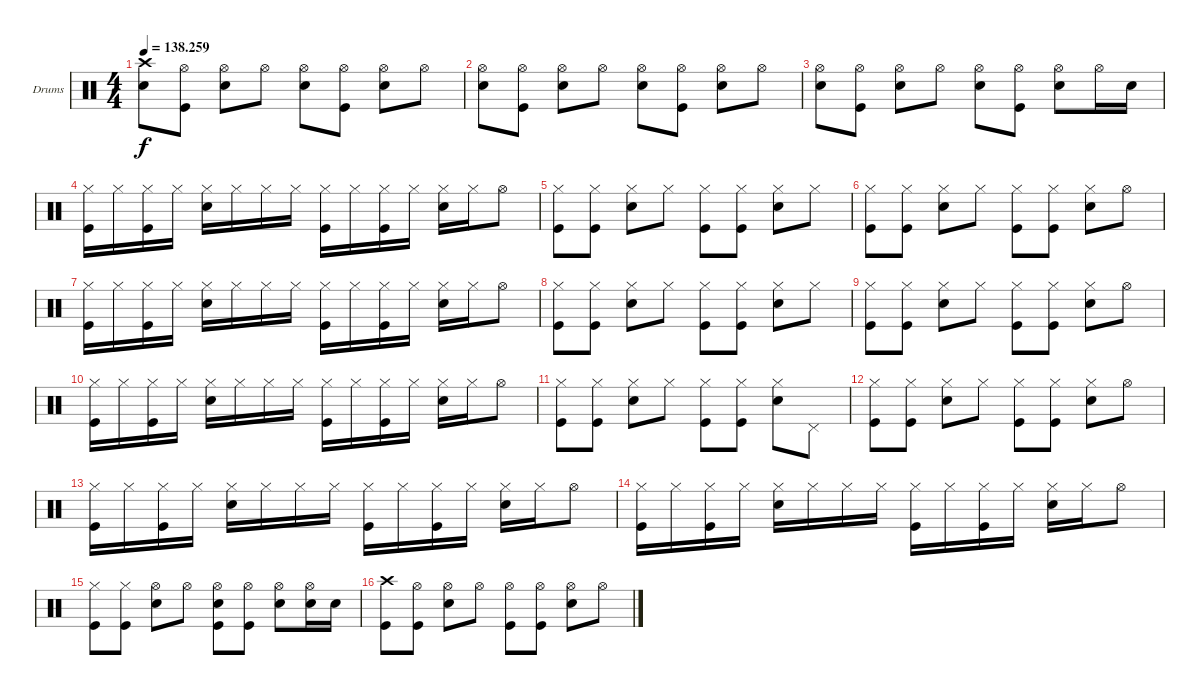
\bracketExtendMode groupsimilarinstruments
\firstSystemTrackNameOrientation horizontal
\otherSystemsTrackNameOrientation horizontal
\track ("Drumkit" "Drums") {instrument percussion}
\staff {score}
\articulation defaults
\ts (4 4)
\tempo
138.259
\accidentals auto
\clef neutral
\ottava regular
\simile none
\ks c
("Crash high (hit)" "Snare (hit) 2").8{dy f} ("Hi-Hat (open)" "Kick (hit)").8 ("Hi-Hat (open)" "Snare (hit) 2").8 "Hi-Hat (open)".8 ("Hi-Hat (open)" "Snare (hit) 2").8 ("Hi-Hat (open)" "Kick (hit)").8 ("Hi-Hat (open)" "Snare (hit) 2").8 "Hi-Hat (open)".8 |
("Hi-Hat (open)" "Snare (hit) 2").8 ("Hi-Hat (open)" "Kick (hit)").8 ("Hi-Hat (open)" "Snare (hit) 2").8 "Hi-Hat (open)".8 ("Hi-Hat (open)" "Snare (hit) 2").8 ("Hi-Hat (open)" "Kick (hit)").8 ("Hi-Hat (open)" "Snare (hit) 2").8 "Hi-Hat (open)".8 |
("Hi-Hat (open)" "Snare (hit) 2").8 ("Hi-Hat (open)" "Kick (hit)").8 ("Hi-Hat (open)" "Snare (hit) 2").8 "Hi-Hat (open)".8 ("Hi-Hat (open)" "Snare (hit) 2").8 ("Hi-Hat (open)" "Kick (hit)").8 ("Hi-Hat (open)" "Snare (hit) 2").8 "Hi-Hat (open)".16 "Snare (hit) 2".16 |
("Hi-Hat (closed)" "Kick (hit)").16 "Hi-Hat (closed)".16 ("Hi-Hat (closed)" "Kick (hit)").16 "Hi-Hat (closed)".16 ("Hi-Hat (closed)" "Snare (hit) 2").16 "Hi-Hat (closed)".16 "Hi-Hat (closed)".16 "Hi-Hat (closed)".16 ("Hi-Hat (closed)" "Kick (hit)").16 "Hi-Hat (closed)".16 ("Hi-Hat (closed)" "Kick (hit)").16 "Hi-Hat (closed)".16 ("Hi-Hat (closed)" "Snare (hit) 2").16 "Hi-Hat (closed)".16 "Hi-Hat (open)".8 |
("Hi-Hat (closed)" "Kick (hit)").8 ("Hi-Hat (closed)" "Kick (hit)").8 ("Hi-Hat (closed)" "Snare (hit) 2").8 "Hi-Hat (closed)".8 ("Hi-Hat (closed)" "Kick (hit)").8 ("Hi-Hat (closed)" "Kick (hit)").8 ("Hi-Hat (closed)" "Snare (hit) 2").8 "Hi-Hat (closed)".8 |
("Hi-Hat (closed)" "Kick (hit)").8 ("Hi-Hat (closed)" "Kick (hit)").8 ("Hi-Hat (closed)" "Snare (hit) 2").8 "Hi-Hat (closed)".8 ("Hi-Hat (closed)" "Kick (hit)").8 ("Hi-Hat (closed)" "Kick (hit)").8 ("Hi-Hat (closed)" "Snare (hit) 2").8 "Hi-Hat (open)".8 |
("Hi-Hat (closed)" "Kick (hit)").16 "Hi-Hat (closed)".16 ("Hi-Hat (closed)" "Kick (hit)").16 "Hi-Hat (closed)".16 ("Hi-Hat (closed)" "Snare (hit) 2").16 "Hi-Hat (closed)".16 "Hi-Hat (closed)".16 "Hi-Hat (closed)".16 ("Hi-Hat (closed)" "Kick (hit)").16 "Hi-Hat (closed)".16 ("Hi-Hat (closed)" "Kick (hit)").16 "Hi-Hat (closed)".16 ("Hi-Hat (closed)" "Snare (hit) 2").16 "Hi-Hat (closed)".16 "Hi-Hat (open)".8 |
("Hi-Hat (closed)" "Kick (hit)").8 ("Hi-Hat (closed)" "Kick (hit)").8 ("Hi-Hat (closed)" "Snare (hit) 2").8 "Hi-Hat (closed)".8 ("Hi-Hat (closed)" "Kick (hit)").8 ("Hi-Hat (closed)" "Kick (hit)").8 ("Hi-Hat (closed)" "Snare (hit) 2").8 "Hi-Hat (closed)".8 |
("Hi-Hat (closed)" "Kick (hit)").8 ("Hi-Hat (closed)" "Kick (hit)").8 ("Hi-Hat (closed)" "Snare (hit) 2").8 "Hi-Hat (closed)".8 ("Hi-Hat (closed)" "Kick (hit)").8 ("Hi-Hat (closed)" "Kick (hit)").8 ("Hi-Hat (closed)" "Snare (hit) 2").8 "Hi-Hat (open)".8 |
("Hi-Hat (closed)" "Kick (hit)").16 "Hi-Hat (closed)".16 ("Hi-Hat (closed)" "Kick (hit)").16 "Hi-Hat (closed)".16 ("Hi-Hat (closed)" "Snare (hit) 2").16 "Hi-Hat (closed)".16 "Hi-Hat (closed)".16 "Hi-Hat (closed)".16 ("Hi-Hat (closed)" "Kick (hit)").16 "Hi-Hat (closed)".16 ("Hi-Hat (closed)" "Kick (hit)").16 "Hi-Hat (closed)".16 ("Hi-Hat (closed)" "Snare (hit) 2").16 "Hi-Hat (closed)".16 "Hi-Hat (open)".8 |
("Hi-Hat (closed)" "Kick (hit)").8 ("Hi-Hat (closed)" "Kick (hit)").8 ("Hi-Hat (closed)" "Snare (hit) 2").8 "Hi-Hat (closed)".8 ("Hi-Hat (closed)" "Kick (hit)").8 ("Hi-Hat (closed)" "Kick (hit)").8 ("Hi-Hat (closed)" "Snare (hit) 2").8 "Pedal Hi-Hat (hit)".8 |
("Hi-Hat (closed)" "Kick (hit)").8 ("Hi-Hat (closed)" "Kick (hit)").8 ("Hi-Hat (closed)" "Snare (hit) 2").8 "Hi-Hat (closed)".8 ("Hi-Hat (closed)" "Kick (hit)").8 ("Hi-Hat (closed)" "Kick (hit)").8 ("Hi-Hat (closed)" "Snare (hit) 2").8 "Hi-Hat (open)".8 |
("Hi-Hat (closed)" "Kick (hit)").16 "Hi-Hat (closed)".16 ("Hi-Hat (closed)" "Kick (hit)").16 "Hi-Hat (closed)".16 ("Hi-Hat (closed)" "Snare (hit) 2").16 "Hi-Hat (closed)".16 "Hi-Hat (closed)".16 "Hi-Hat (closed)".16 ("Hi-Hat (closed)" "Kick (hit)").16 "Hi-Hat (closed)".16 ("Hi-Hat (closed)" "Kick (hit)").16 "Hi-Hat (closed)".16 ("Hi-Hat (closed)" "Snare (hit) 2").16 "Hi-Hat (closed)".16 "Hi-Hat (open)".8 |
("Hi-Hat (closed)" "Kick (hit)").16 "Hi-Hat (closed)".16 ("Hi-Hat (closed)" "Kick (hit)").16 "Hi-Hat (closed)".16 ("Hi-Hat (closed)" "Snare (hit) 2").16 "Hi-Hat (closed)".16 "Hi-Hat (closed)".16 "Hi-Hat (closed)".16 ("Hi-Hat (closed)" "Kick (hit)").16 "Hi-Hat (closed)".16 ("Hi-Hat (closed)" "Kick (hit)").16 "Hi-Hat (closed)".16 ("Hi-Hat (closed)" "Snare (hit) 2").16 "Hi-Hat (closed)".16 "Hi-Hat (open)".8 |
("Hi-Hat (closed)" "Kick (hit)").8 ("Hi-Hat (closed)" "Kick (hit)").8 ("Hi-Hat (open)" "Snare (hit) 2").8 "Hi-Hat (open)".8 ("Hi-Hat (open)" "Snare (hit) 2" "Kick (hit)").8 ("Hi-Hat (open)" "Kick (hit)").8 ("Hi-Hat (open)" "Snare (hit) 2").8 ("Hi-Hat (open)" "Snare (hit) 2").16 "Snare (hit) 2".16 |
("Crash high (hit)" "Kick (hit)").8 ("Hi-Hat (open)" "Kick (hit)").8 ("Hi-Hat (open)" "Snare (hit) 2").8 "Hi-Hat (open)".8 ("Hi-Hat (open)" "Kick (hit)").8 ("Hi-Hat (open)" "Kick (hit)").8 ("Hi-Hat (open)" "Snare (hit) 2").8 "Hi-Hat (open)".8
